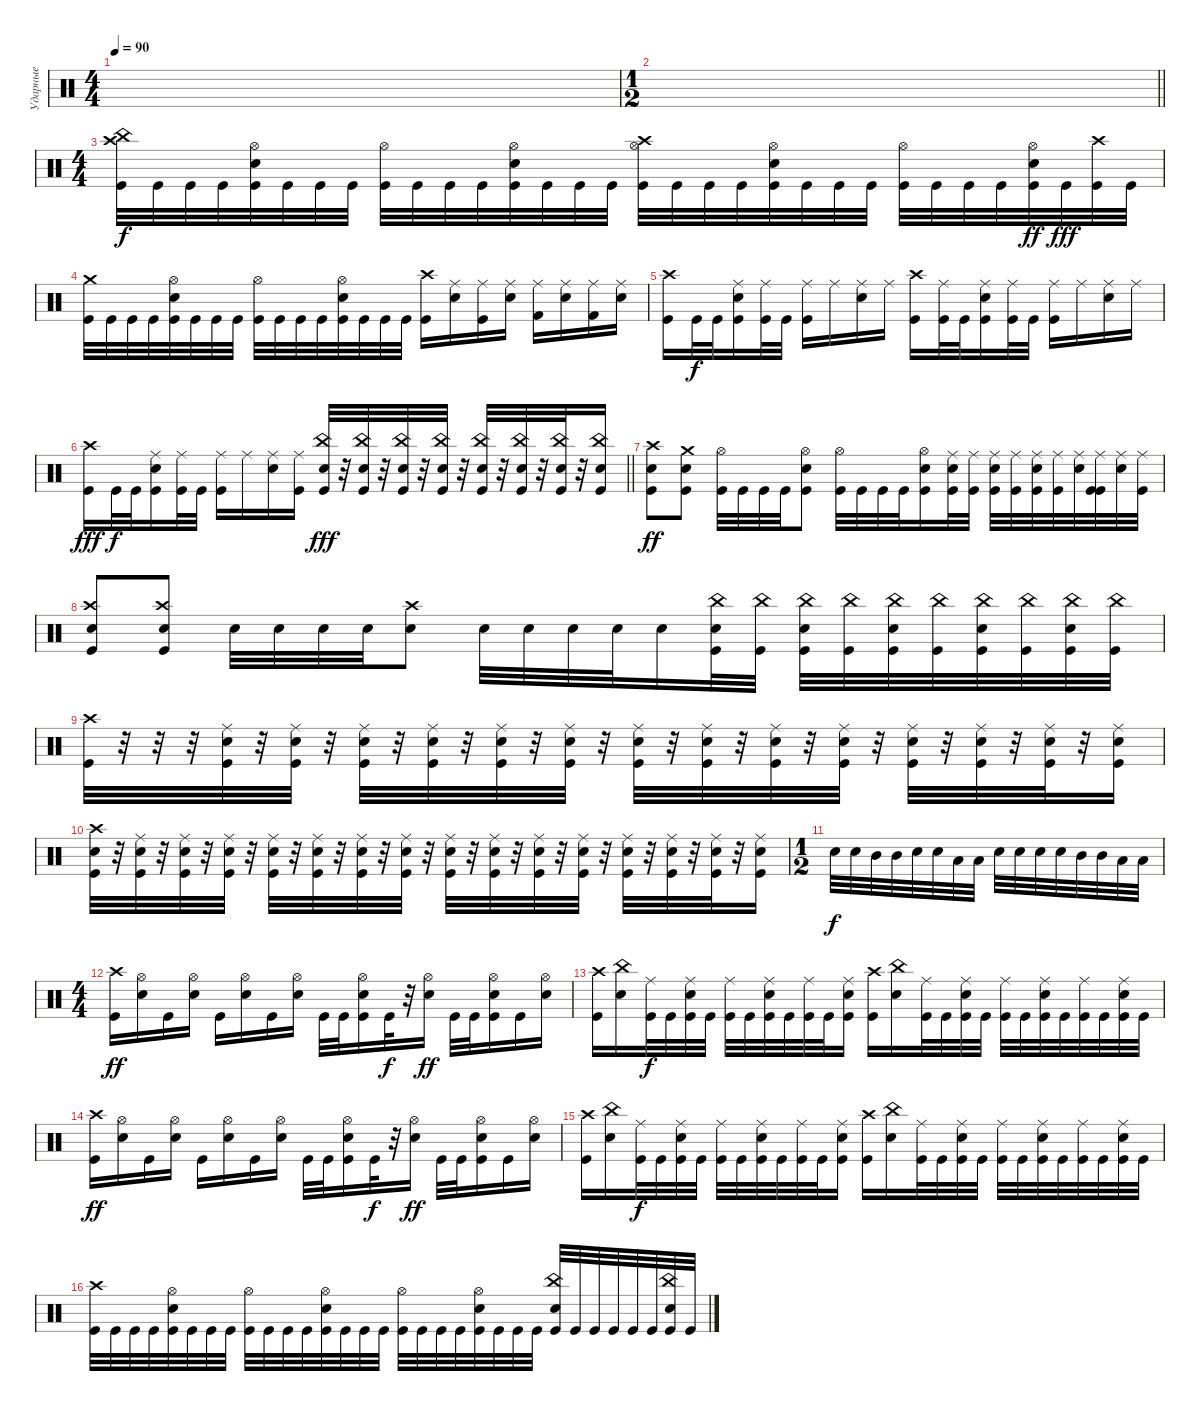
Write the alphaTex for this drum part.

\track ("Ударные" "Ударные") {instrument percussion}
\staff {score}
\articulation defaults
\ts (4 4)
\tempo 90
\clef neutral
\ks c
|
\ts (1 2)
\barLineRight lightlight
|
\ts (4 4)
("Kick (hit)" "Crash high (hit)" "China (hit)").32 "Kick (hit)".32 "Kick (hit)".32 "Kick (hit)".32 ("Kick (hit)" "Electric Snare (hit)" "Hi-Hat (open)").32 "Kick (hit)".32 "Kick (hit)".32 "Kick (hit)".32 ("Kick (hit)" "Hi-Hat (open)").32 "Kick (hit)".32 "Kick (hit)".32 "Kick (hit)".32 ("Kick (hit)" "Electric Snare (hit)" "Hi-Hat (open)").32 "Kick (hit)".32 "Kick (hit)".32 "Kick (hit)".32 ("Kick (hit)" "Hi-Hat (open)" "Crash high (hit)").32 "Kick (hit)".32 "Kick (hit)".32 "Kick (hit)".32 ("Kick (hit)" "Electric Snare (hit)" "Hi-Hat (open)").32 "Kick (hit)".32 "Kick (hit)".32 "Kick (hit)".32 ("Kick (hit)" "Hi-Hat (open)").32 "Kick (hit)".32 "Kick (hit)".32 "Kick (hit)".32 ("Kick (hit)" "Electric Snare (hit)" "Hi-Hat (open)").32{dy ff} "Kick (hit)".32{dy fff} ("Kick (hit)" "Crash high (hit)").32 "Kick (hit)".32 |
("Kick (hit)" "Crash medium (hit)").32 "Kick (hit)".32 "Kick (hit)".32 "Kick (hit)".32 ("Kick (hit)" "Electric Snare (hit)" "Hi-Hat (open)").32 "Kick (hit)".32 "Kick (hit)".32 "Kick (hit)".32 ("Kick (hit)" "Hi-Hat (open)").32 "Kick (hit)".32 "Kick (hit)".32 "Kick (hit)".32 ("Kick (hit)" "Electric Snare (hit)" "Hi-Hat (open)").32 "Kick (hit)".32 "Kick (hit)".32 "Kick (hit)".32 ("Kick (hit)" "Crash high (hit)").16 ("Electric Snare (hit)" "Ride (middle)").16 ("Kick (hit)" "Ride (middle)").16 ("Electric Snare (hit)" "Ride (middle)").16 ("Kick (hit) 2" "Ride (middle)").16 ("Electric Snare (hit)" "Ride (middle)").16 ("Kick (hit) 2" "Ride (middle)").16 ("Electric Snare (hit)" "Ride (middle)").16 |
("Kick (hit)" "Crash high (hit)").16 "Kick (hit)".32{dy f} "Kick (hit)".32 ("Kick (hit)" "Ride (middle)" "Electric Snare (hit)").16 ("Kick (hit)" "Ride (middle)").32 "Kick (hit)".32 ("Kick (hit)" "Ride (middle)").16 "Ride (middle)".16 ("Ride (middle)" "Electric Snare (hit)").16 "Ride (middle)".16 ("Kick (hit)" "Crash high (hit)").16 ("Kick (hit)" "Ride (middle)").32 "Kick (hit)".32 ("Kick (hit)" "Ride (middle)" "Electric Snare (hit)").16 ("Kick (hit)" "Ride (middle)").32 "Kick (hit)".32 ("Kick (hit)" "Ride (middle)").16 "Ride (middle)".16 ("Ride (middle)" "Electric Snare (hit)").16 "Ride (middle)".16 |
\barLineRight lightlight
("Kick (hit)" "Crash high (hit)").16{dy fff} "Kick (hit)".32{dy f} "Kick (hit)".32 ("Kick (hit)" "Ride (middle)" "Electric Snare (hit)").16 ("Kick (hit)" "Ride (middle)").32 "Kick (hit)".32 ("Kick (hit)" "Ride (middle)").16 "Ride (middle)".16 ("Ride (middle)" "Electric Snare (hit)").16 ("Ride (middle)" "Kick (hit)").16 ("Kick (hit)" "China (hit)" "Electric Snare (hit)").32{dy fff} r.32 ("Kick (hit)" "China (hit)" "Electric Snare (hit)").32 r.32 ("Kick (hit)" "China (hit)" "Electric Snare (hit)").32 r.32 ("Kick (hit)" "China (hit)" "Electric Snare (hit)").32 r.32 ("Kick (hit)" "China (hit)" "Electric Snare (hit)").32 r.32 ("Kick (hit)" "China (hit)" "Electric Snare (hit)").32 r.32 ("Kick (hit)" "China (hit)" "Electric Snare (hit)").32 r.32 ("Kick (hit)" "China (hit)" "Electric Snare (hit)").16 |
("Electric Snare (hit)" "Kick (hit)" "Crash high (hit)").8{dy ff} ("Electric Snare (hit)" "Kick (hit)" "Crash medium (hit)").8 ("Hi-Hat (open)" "Kick (hit)").32 "Kick (hit)".32 "Kick (hit)".32 "Kick (hit)".32 ("Electric Snare (hit)" "Kick (hit)" "Hi-Hat (open)").8 ("Hi-Hat (open)" "Kick (hit)").32 "Kick (hit)".32 "Kick (hit)".32 "Kick (hit)".32 ("Hi-Hat (open)" "Electric Snare (hit)" "Kick (hit)").16 ("Kick (hit)" "Ride (middle)" "Electric Snare (hit)").32 ("Ride (middle)" "Kick (hit)").32 ("Kick (hit)" "Ride (middle)" "Electric Snare (hit)").32 ("Ride (middle)" "Kick (hit)").32 ("Kick (hit)" "Ride (middle)" "Electric Snare (hit)").32 ("Ride (middle)" "Kick (hit)").32 ("Ride (middle)" "Electric Snare (hit)").32 ("Kick (hit)" "Ride (middle)" "Kick (hit)").32 ("Ride (middle)" "Electric Snare (hit)").32 ("Ride (middle)" "Kick (hit)").32 |
("Crash high (hit)" "Electric Snare (hit)" "Kick (hit)").8 ("Crash high (hit)" "Electric Snare (hit)" "Kick (hit)").8 "Electric Snare (hit)".32 "Electric Snare (hit)".32 "Electric Snare (hit)".32 "Electric Snare (hit)".32 ("Crash high (hit)" "Electric Snare (hit)").8 "Electric Snare (hit)".32 "Electric Snare (hit)".32 "Electric Snare (hit)".32 "Electric Snare (hit)".32 "Electric Snare (hit)".16 ("China (hit)" "Electric Snare (hit)" "Kick (hit)").32 ("China (hit)" "Kick (hit)").32 ("China (hit)" "Electric Snare (hit)" "Kick (hit)").32 ("China (hit)" "Kick (hit)").32 ("China (hit)" "Electric Snare (hit)" "Kick (hit)").32 ("China (hit)" "Kick (hit)").32 ("China (hit)" "Electric Snare (hit)" "Kick (hit)").32 ("China (hit)" "Kick (hit)").32 ("China (hit)" "Electric Snare (hit)" "Kick (hit)").32 ("China (hit)" "Kick (hit)").32 |
("Crash high (hit)" "Kick (hit)").32 r.32 r.32 r.32 ("Kick (hit)" "Electric Snare (hit)" "Ride (middle)").32 r.32 ("Kick (hit)" "Electric Snare (hit)" "Ride (middle)").32 r.32 ("Kick (hit)" "Electric Snare (hit)" "Ride (middle)").32 r.32 ("Kick (hit)" "Electric Snare (hit)" "Ride (middle)").32 r.32 ("Kick (hit)" "Electric Snare (hit)" "Ride (middle)").32 r.32 ("Kick (hit)" "Electric Snare (hit)" "Ride (middle)").32 r.32 ("Kick (hit)" "Electric Snare (hit)" "Ride (middle)").32 r.32 ("Kick (hit)" "Electric Snare (hit)" "Ride (middle)").32 r.32 ("Kick (hit)" "Electric Snare (hit)" "Ride (middle)").32 r.32 ("Kick (hit)" "Electric Snare (hit)" "Ride (middle)").32 r.32 ("Kick (hit)" "Electric Snare (hit)" "Ride (middle)").32 r.32 ("Kick (hit)" "Electric Snare (hit)" "Ride (middle)").32 r.32 ("Kick (hit)" "Electric Snare (hit)" "Ride (middle)").32 r.32 ("Kick (hit)" "Electric Snare (hit)" "Ride (middle)").16 |
("Crash high (hit)" "Kick (hit)" "Electric Snare (hit)").32 r.32 ("Kick (hit)" "Electric Snare (hit)" "Ride (middle)").32 r.32 ("Kick (hit)" "Electric Snare (hit)" "Ride (middle)").32 r.32 ("Kick (hit)" "Electric Snare (hit)" "Ride (middle)").32 r.32 ("Kick (hit)" "Electric Snare (hit)" "Ride (middle)").32 r.32 ("Kick (hit)" "Electric Snare (hit)" "Ride (middle)").32 r.32 ("Kick (hit)" "Electric Snare (hit)" "Ride (middle)").32 r.32 ("Kick (hit)" "Electric Snare (hit)" "Ride (middle)").32 r.32 ("Kick (hit)" "Electric Snare (hit)" "Ride (middle)").32 r.32 ("Kick (hit)" "Electric Snare (hit)" "Ride (middle)").32 r.32 ("Kick (hit)" "Electric Snare (hit)" "Ride (middle)").32 r.32 ("Kick (hit)" "Electric Snare (hit)" "Ride (middle)").32 r.32 ("Kick (hit)" "Electric Snare (hit)" "Ride (middle)").32 r.32 ("Kick (hit)" "Electric Snare (hit)" "Ride (middle)").32 r.32 ("Kick (hit)" "Electric Snare (hit)" "Ride (middle)").32 r.32 ("Kick (hit)" "Electric Snare (hit)" "Ride (middle)").16 |
\ts (1 2)
"Electric Snare (hit)".32{dy f} "Electric Snare (hit)".32 "Mid Tom (hit)".32 "Mid Tom (hit)".32 "Electric Snare (hit)".32 "Electric Snare (hit)".32 "Low Tom (hit)".32 "Low Tom (hit)".32 "Electric Snare (hit)".32 "Electric Snare (hit)".32 "Electric Snare (hit)".32 "Electric Snare (hit)".32 "Mid Tom (hit)".32 "Mid Tom (hit)".32 "Low Tom (hit)".32 "Low Tom (hit)".32 |
\ts (4 4)
("Crash high (hit)" "Kick (hit)").16{dy ff} ("Hi-Hat (open)" "Electric Snare (hit)").16 "Kick (hit)".16 ("Hi-Hat (open)" "Electric Snare (hit)").16 "Kick (hit)".16 ("Hi-Hat (open)" "Electric Snare (hit)").16 "Kick (hit)".16 ("Hi-Hat (open)" "Electric Snare (hit)").16 "Kick (hit)".32 "Kick (hit)".32 ("Hi-Hat (open)" "Electric Snare (hit)" "Kick (hit)").16 "Kick (hit)".32{dy f} r.32 ("Hi-Hat (open)" "Electric Snare (hit)").16{dy ff} "Kick (hit)".32 "Kick (hit)".32 ("Hi-Hat (open)" "Electric Snare (hit)" "Kick (hit)").16 "Kick (hit)".16 ("Hi-Hat (open)" "Electric Snare (hit)").16 |
("Crash high (hit)" "Kick (hit)").16 ("China (hit)" "Electric Snare (hit)").16 ("Ride (middle)" "Kick (hit)").32{dy f} "Kick (hit)".32 ("Electric Snare (hit)" "Ride (middle)" "Kick (hit)").32 "Kick (hit)".32 ("Ride (middle)" "Kick (hit)").32 "Kick (hit)".32 ("Electric Snare (hit)" "Ride (middle)" "Kick (hit)").32 "Kick (hit)".32 ("Ride (middle)" "Kick (hit)").32 "Kick (hit)".32 ("Electric Snare (hit)" "Ride (middle)" "Kick (hit)").16 ("Crash high (hit)" "Kick (hit)").16 ("China (hit)" "Electric Snare (hit)").16 ("Ride (middle)" "Kick (hit)").32 "Kick (hit)".32 ("Electric Snare (hit)" "Ride (middle)" "Kick (hit)").32 "Kick (hit)".32 ("Ride (middle)" "Kick (hit)").32 "Kick (hit)".32 ("Electric Snare (hit)" "Ride (middle)" "Kick (hit)").32 "Kick (hit)".32 ("Ride (middle)" "Kick (hit)").32 "Kick (hit)".32 ("Electric Snare (hit)" "Ride (middle)" "Kick (hit)").32 "Kick (hit)".32 |
("Crash high (hit)" "Kick (hit)").16{dy ff} ("Hi-Hat (open)" "Electric Snare (hit)").16 "Kick (hit)".16 ("Hi-Hat (open)" "Electric Snare (hit)").16 "Kick (hit)".16 ("Hi-Hat (open)" "Electric Snare (hit)").16 "Kick (hit)".16 ("Hi-Hat (open)" "Electric Snare (hit)").16 "Kick (hit)".32 "Kick (hit)".32 ("Hi-Hat (open)" "Electric Snare (hit)" "Kick (hit)").16 "Kick (hit)".32{dy f} r.32 ("Hi-Hat (open)" "Electric Snare (hit)").16{dy ff} "Kick (hit)".32 "Kick (hit)".32 ("Hi-Hat (open)" "Electric Snare (hit)" "Kick (hit)").16 "Kick (hit)".16 ("Hi-Hat (open)" "Electric Snare (hit)").16 |
("Crash high (hit)" "Kick (hit)").16 ("China (hit)" "Electric Snare (hit)").16 ("Ride (middle)" "Kick (hit)").32{dy f} "Kick (hit)".32 ("Electric Snare (hit)" "Ride (middle)" "Kick (hit)").32 "Kick (hit)".32 ("Ride (middle)" "Kick (hit)").32 "Kick (hit)".32 ("Electric Snare (hit)" "Ride (middle)" "Kick (hit)").32 "Kick (hit)".32 ("Ride (middle)" "Kick (hit)").32 "Kick (hit)".32 ("Electric Snare (hit)" "Ride (middle)" "Kick (hit)").16 ("Crash high (hit)" "Kick (hit)").16 ("China (hit)" "Electric Snare (hit)").16 ("Ride (middle)" "Kick (hit)").32 "Kick (hit)".32 ("Electric Snare (hit)" "Ride (middle)" "Kick (hit)").32 "Kick (hit)".32 ("Ride (middle)" "Kick (hit)").32 "Kick (hit)".32 ("Electric Snare (hit)" "Ride (middle)" "Kick (hit)").32 "Kick (hit)".32 ("Ride (middle)" "Kick (hit)").32 "Kick (hit)".32 ("Electric Snare (hit)" "Ride (middle)" "Kick (hit)").32 "Kick (hit)".32 |
("Crash high (hit)" "Kick (hit)").32 "Kick (hit)".32 "Kick (hit)".32 "Kick (hit)".32 ("Hi-Hat (open)" "Electric Snare (hit)" "Kick (hit)").32 "Kick (hit)".32 "Kick (hit)".32 "Kick (hit)".32 ("Hi-Hat (open)" "Kick (hit)").32 "Kick (hit)".32 "Kick (hit)".32 "Kick (hit)".32 ("Hi-Hat (open)" "Electric Snare (hit)" "Kick (hit)").32 "Kick (hit)".32 "Kick (hit)".32 "Kick (hit)".32 ("Hi-Hat (open)" "Kick (hit)").32 "Kick (hit)".32 "Kick (hit)".32 "Kick (hit)".32 ("Hi-Hat (open)" "Electric Snare (hit)" "Kick (hit)").32 "Kick (hit)".32 "Kick (hit)".32 "Kick (hit)".32 ("China (hit)" "Electric Snare (hit)" "Kick (hit)").32 "Kick (hit)".32 "Kick (hit)".32 "Kick (hit)".32 "Kick (hit)".32 "Kick (hit)".32 ("Electric Snare (hit)" "China (hit)" "Kick (hit)").32 "Kick (hit)".32
